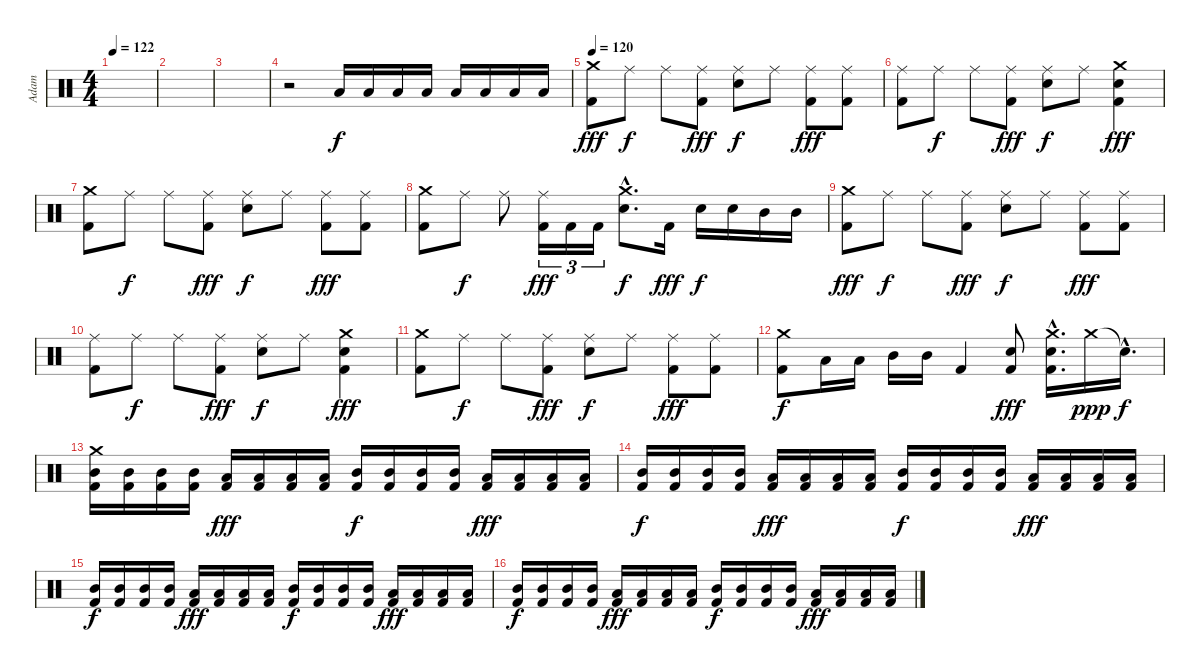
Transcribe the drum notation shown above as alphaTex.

\track ("Adam" "Adam") {instrument percussion}
\staff {score}
\articulation defaults
\ts (4 4)
\tempo 122
\clef neutral
\ks c
|
|
|
r.2 "Low Tom (hit)".16 "Low Tom (hit)".16 "Low Tom (hit)".16 "Low Tom (hit)".16 "Low Tom (hit)".16 "Low Tom (hit)".16 "Low Tom (hit)".16 "Low Tom (hit)".16 |
\tempo 120
("Crash medium (hit)" "Kick (hit) 2").8{dy fff} "Ride (middle)".8{dy f} "Ride (middle)".8 ("Ride (middle)" "Kick (hit) 2").8{dy fff} ("Ride (middle)" "Snare (hit) 2").8{dy f} "Ride (middle)".8 ("Ride (middle)" "Kick (hit) 2").8{dy fff} ("Ride (middle)" "Kick (hit) 2").8 |
("Ride (middle)" "Kick (hit) 2").8 "Ride (middle)".8{dy f} "Ride (middle)".8 ("Ride (middle)" "Kick (hit) 2").8{dy fff} ("Ride (middle)" "Snare (hit) 2").8{dy f} "Ride (middle)".8 ("Crash medium (hit)" "Snare (hit) 2" "Kick (hit) 2").4{dy fff} |
("Crash medium (hit)" "Kick (hit) 2").8 "Ride (middle)".8{dy f} "Ride (middle)".8 ("Ride (middle)" "Kick (hit) 2").8{dy fff} ("Ride (middle)" "Snare (hit) 2").8{dy f} "Ride (middle)".8 ("Ride (middle)" "Kick (hit) 2").8{dy fff} ("Ride (middle)" "Kick (hit) 2").8 |
("Crash medium (hit)" "Kick (hit) 2").8 "Ride (middle)".8{dy f} "Ride (middle)".8 ("Ride (middle)" "Kick (hit) 2").16{tu (3 2) dy fff} "Kick (hit) 2".16{tu (3 2)} "Kick (hit) 2".16{tu (3 2)} ("Crash medium (hit)"{hac} "Snare (hit) 2"{hac}).8{d dy f} "Kick (hit) 2".16{dy fff} "Snare (hit) 2".16{dy f} "Snare (hit) 2".16 "Mid Tom (hit)".16 "Mid Tom (hit)".16 |
("Crash medium (hit)" "Kick (hit) 2").8{dy fff} "Ride (middle)".8{dy f} "Ride (middle)".8 ("Ride (middle)" "Kick (hit) 2").8{dy fff} ("Ride (middle)" "Snare (hit) 2").8{dy f} "Ride (middle)".8 ("Ride (middle)" "Kick (hit) 2").8{dy fff} ("Ride (middle)" "Kick (hit) 2").8 |
("Ride (middle)" "Kick (hit) 2").8 "Ride (middle)".8{dy f} "Ride (middle)".8 ("Ride (middle)" "Kick (hit) 2").8{dy fff} ("Ride (middle)" "Snare (hit) 2").8{dy f} "Ride (middle)".8 ("Crash medium (hit)" "Snare (hit) 2" "Kick (hit) 2").4{dy fff} |
("Crash medium (hit)" "Kick (hit) 2").8 "Ride (middle)".8{dy f} "Ride (middle)".8 ("Ride (middle)" "Kick (hit) 2").8{dy fff} ("Ride (middle)" "Snare (hit) 2").8{dy f} "Ride (middle)".8 ("Ride (middle)" "Kick (hit) 2").8{dy fff} ("Ride (middle)" "Kick (hit) 2").8 |
("Crash medium (hit)" "Kick (hit) 2").8{dy f} "Low Tom (hit)".16 "Low Tom (hit)".16 "Mid Tom (hit)".16 "Mid Tom (hit)".16 "Kick (hit) 2".4 ("Snare (hit) 2" "Kick (hit) 2").8{dy fff} ("Crash medium (hit)"{hac} "Snare (hit) 2"{hac} "Kick (hit) 2"{hac}).16{d} "Crash medium (hit)".16{dy ppp} "Snare (hit)"{hac t}.16{d dy f} |
("Mid Tom (hit)" "Crash medium (hit)" "Kick (hit) 2").16 ("Mid Tom (hit)" "Kick (hit) 2").16 ("Mid Tom (hit)" "Kick (hit) 2").16 ("Mid Tom (hit)" "Kick (hit) 2").16 ("Low Tom (hit)" "Kick (hit) 2").16{dy fff} ("Low Tom (hit)" "Kick (hit) 2").16 ("Low Tom (hit)" "Kick (hit) 2").16 ("Low Tom (hit)" "Kick (hit) 2").16 ("Mid Tom (hit)" "Kick (hit) 2").16{dy f} ("Mid Tom (hit)" "Kick (hit) 2").16 ("Mid Tom (hit)" "Kick (hit) 2").16 ("Mid Tom (hit)" "Kick (hit) 2").16 ("Low Tom (hit)" "Kick (hit) 2").16{dy fff} ("Low Tom (hit)" "Kick (hit) 2").16 ("Low Tom (hit)" "Kick (hit) 2").16 ("Low Tom (hit)" "Kick (hit) 2").16 |
("Mid Tom (hit)" "Kick (hit) 2").16{dy f} ("Mid Tom (hit)" "Kick (hit) 2").16 ("Mid Tom (hit)" "Kick (hit) 2").16 ("Mid Tom (hit)" "Kick (hit) 2").16 ("Low Tom (hit)" "Kick (hit) 2").16{dy fff} ("Low Tom (hit)" "Kick (hit) 2").16 ("Low Tom (hit)" "Kick (hit) 2").16 ("Low Tom (hit)" "Kick (hit) 2").16 ("Mid Tom (hit)" "Kick (hit) 2").16{dy f} ("Mid Tom (hit)" "Kick (hit) 2").16 ("Mid Tom (hit)" "Kick (hit) 2").16 ("Mid Tom (hit)" "Kick (hit) 2").16 ("Low Tom (hit)" "Kick (hit) 2").16{dy fff} ("Low Tom (hit)" "Kick (hit) 2").16 ("Low Tom (hit)" "Kick (hit) 2").16 ("Low Tom (hit)" "Kick (hit) 2").16 |
("Mid Tom (hit)" "Kick (hit) 2").16{dy f} ("Mid Tom (hit)" "Kick (hit) 2").16 ("Mid Tom (hit)" "Kick (hit) 2").16 ("Mid Tom (hit)" "Kick (hit) 2").16 ("Low Tom (hit)" "Kick (hit) 2").16{dy fff} ("Low Tom (hit)" "Kick (hit) 2").16 ("Low Tom (hit)" "Kick (hit) 2").16 ("Low Tom (hit)" "Kick (hit) 2").16 ("Mid Tom (hit)" "Kick (hit) 2").16{dy f} ("Mid Tom (hit)" "Kick (hit) 2").16 ("Mid Tom (hit)" "Kick (hit) 2").16 ("Mid Tom (hit)" "Kick (hit) 2").16 ("Low Tom (hit)" "Kick (hit) 2").16{dy fff} ("Low Tom (hit)" "Kick (hit) 2").16 ("Low Tom (hit)" "Kick (hit) 2").16 ("Low Tom (hit)" "Kick (hit) 2").16 |
("Mid Tom (hit)" "Kick (hit) 2").16{dy f} ("Mid Tom (hit)" "Kick (hit) 2").16 ("Mid Tom (hit)" "Kick (hit) 2").16 ("Mid Tom (hit)" "Kick (hit) 2").16 ("Low Tom (hit)" "Kick (hit) 2").16{dy fff} ("Low Tom (hit)" "Kick (hit) 2").16 ("Low Tom (hit)" "Kick (hit) 2").16 ("Low Tom (hit)" "Kick (hit) 2").16 ("Mid Tom (hit)" "Kick (hit) 2").16{dy f} ("Mid Tom (hit)" "Kick (hit) 2").16 ("Mid Tom (hit)" "Kick (hit) 2").16 ("Mid Tom (hit)" "Kick (hit) 2").16 ("Low Tom (hit)" "Kick (hit) 2").16{dy fff} ("Low Tom (hit)" "Kick (hit) 2").16 ("Low Tom (hit)" "Kick (hit) 2").16 ("Low Tom (hit)" "Kick (hit) 2").16
